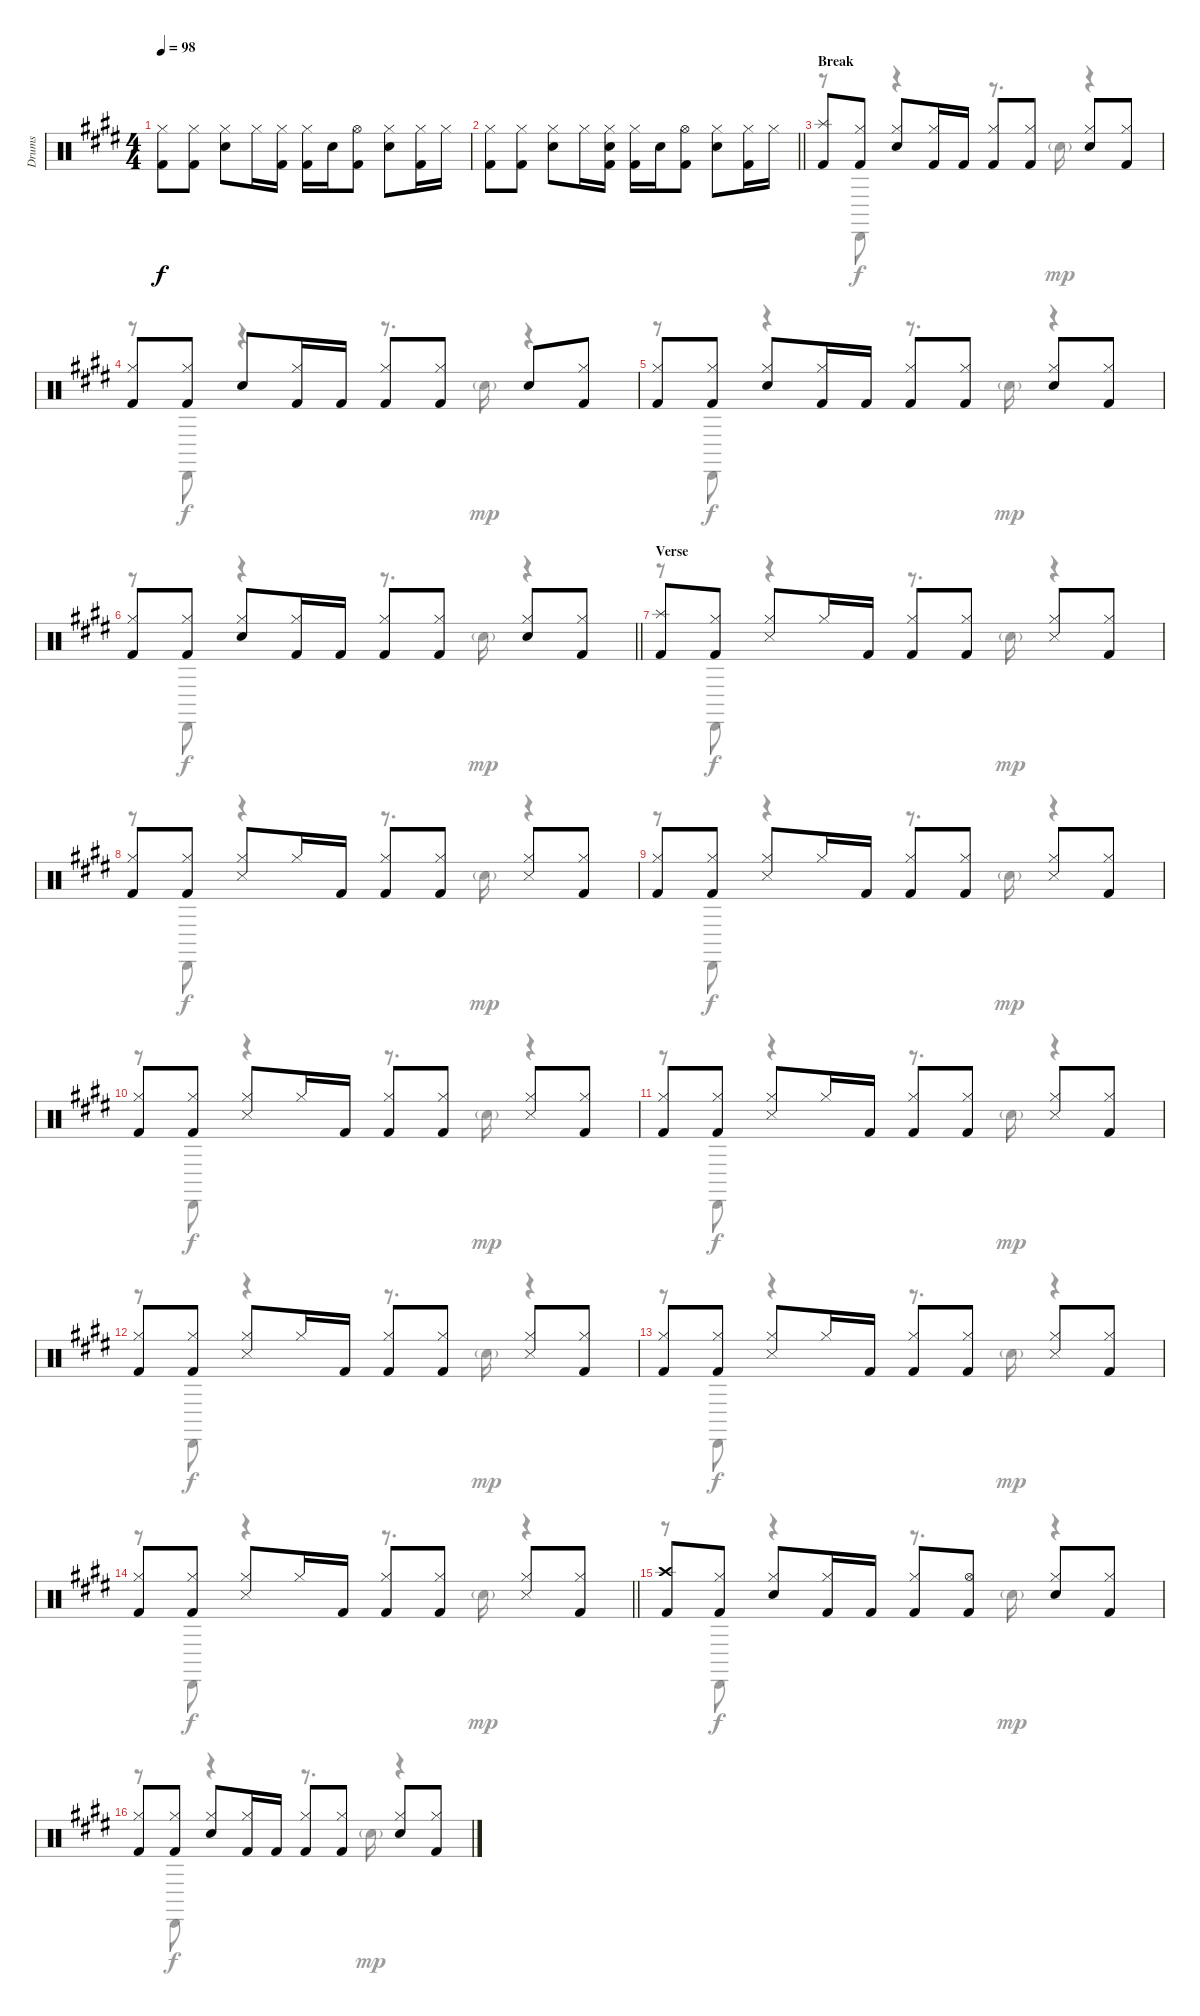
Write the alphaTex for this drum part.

\track ("Drums" "Drums") {instrument percussion}
\staff {score}
\articulation defaults
\voice
\ts (4 4)
\tempo 98
\clef neutral
\ks e
("Hi-Hat (closed)" "Kick (hit) 2").8{dy f} ("Hi-Hat (closed)" "Kick (hit) 2").8 ("Hi-Hat (closed)" "Electric Snare (hit)").8 "Hi-Hat (closed)".16 ("Hi-Hat (closed)" "Kick (hit) 2").16 ("Hi-Hat (closed)" "Kick (hit) 2").16 "Electric Snare (hit)".16 ("Hi-Hat (open)" "Kick (hit) 2").8 ("Hi-Hat (closed)" "Electric Snare (hit)").8 ("Hi-Hat (closed)" "Kick (hit) 2").16 "Hi-Hat (closed)".16 |
\barLineRight lightlight
("Hi-Hat (closed)" "Kick (hit) 2").8 ("Hi-Hat (closed)" "Kick (hit) 2").8 ("Hi-Hat (closed)" "Electric Snare (hit)").8 "Hi-Hat (closed)".16 ("Hi-Hat (closed)" "Electric Snare (hit)" "Kick (hit) 2").16 ("Hi-Hat (closed)" "Kick (hit) 2").16 "Electric Snare (hit)".16 ("Hi-Hat (open)" "Kick (hit) 2").8 ("Hi-Hat (closed)" "Electric Snare (hit)").8 ("Hi-Hat (closed)" "Kick (hit) 2").16 "Hi-Hat (closed)".16 |
\section ("" "Break")
("Splash (hit)" "Kick (hit) 2").8 ("Hi-Hat (closed)" "Kick (hit) 2").8 ("Hi-Hat (closed)" "Electric Snare (hit)").8 ("Hi-Hat (closed)" "Kick (hit) 2").16 "Kick (hit) 2".16 ("Hi-Hat (closed)" "Kick (hit) 2").8 ("Hi-Hat (closed)" "Kick (hit) 2").8 ("Hi-Hat (closed)" "Electric Snare (hit)").8 ("Hi-Hat (closed)" "Kick (hit) 2").8 |
("Hi-Hat (closed)" "Kick (hit) 2").8 ("Hi-Hat (closed)" "Kick (hit) 2").8 "Electric Snare (hit)".8 ("Hi-Hat (closed)" "Kick (hit) 2").16 "Kick (hit) 2".16 ("Hi-Hat (closed)" "Kick (hit) 2").8 ("Hi-Hat (closed)" "Kick (hit) 2").8 "Electric Snare (hit)".8 ("Hi-Hat (closed)" "Kick (hit) 2").8 |
("Hi-Hat (closed)" "Kick (hit) 2").8 ("Hi-Hat (closed)" "Kick (hit) 2").8 ("Hi-Hat (closed)" "Electric Snare (hit)").8 ("Hi-Hat (closed)" "Kick (hit) 2").16 "Kick (hit) 2".16 ("Hi-Hat (closed)" "Kick (hit) 2").8 ("Hi-Hat (closed)" "Kick (hit) 2").8 ("Hi-Hat (closed)" "Electric Snare (hit)").8 ("Hi-Hat (closed)" "Kick (hit) 2").8 |
\barLineRight lightlight
("Hi-Hat (closed)" "Kick (hit) 2").8 ("Hi-Hat (closed)" "Kick (hit) 2").8 ("Hi-Hat (closed)" "Electric Snare (hit)").8 ("Hi-Hat (closed)" "Kick (hit) 2").16 "Kick (hit) 2".16 ("Hi-Hat (closed)" "Kick (hit) 2").8 ("Hi-Hat (closed)" "Kick (hit) 2").8 ("Hi-Hat (closed)" "Electric Snare (hit)").8 ("Hi-Hat (closed)" "Kick (hit) 2").8 |
\section ("" "Verse")
("Splash (hit)" "Kick (hit) 2").8 ("Hi-Hat (closed)" "Kick (hit) 2").8 ("Hi-Hat (closed)" "Snare (side stick) 3").8 "Hi-Hat (closed)".16 "Kick (hit) 2".16 ("Hi-Hat (closed)" "Kick (hit) 2").8 ("Hi-Hat (closed)" "Kick (hit) 2").8 ("Hi-Hat (closed)" "Snare (side stick) 3").8 ("Hi-Hat (closed)" "Kick (hit) 2").8 |
("Hi-Hat (closed)" "Kick (hit) 2").8 ("Hi-Hat (closed)" "Kick (hit) 2").8 ("Hi-Hat (closed)" "Snare (side stick) 3").8 "Hi-Hat (closed)".16 "Kick (hit) 2".16 ("Hi-Hat (closed)" "Kick (hit) 2").8 ("Hi-Hat (closed)" "Kick (hit) 2").8 ("Hi-Hat (closed)" "Snare (side stick) 3").8 ("Hi-Hat (closed)" "Kick (hit) 2").8 |
("Hi-Hat (closed)" "Kick (hit) 2").8 ("Hi-Hat (closed)" "Kick (hit) 2").8 ("Hi-Hat (closed)" "Snare (side stick) 3").8 "Hi-Hat (closed)".16 "Kick (hit) 2".16 ("Hi-Hat (closed)" "Kick (hit) 2").8 ("Hi-Hat (closed)" "Kick (hit) 2").8 ("Hi-Hat (closed)" "Snare (side stick) 3").8 ("Hi-Hat (closed)" "Kick (hit) 2").8 |
("Hi-Hat (closed)" "Kick (hit) 2").8 ("Hi-Hat (closed)" "Kick (hit) 2").8 ("Hi-Hat (closed)" "Snare (side stick) 3").8 "Hi-Hat (closed)".16 "Kick (hit) 2".16 ("Hi-Hat (closed)" "Kick (hit) 2").8 ("Hi-Hat (closed)" "Kick (hit) 2").8 ("Hi-Hat (closed)" "Snare (side stick) 3").8 ("Hi-Hat (closed)" "Kick (hit) 2").8 |
("Hi-Hat (closed)" "Kick (hit) 2").8 ("Hi-Hat (closed)" "Kick (hit) 2").8 ("Hi-Hat (closed)" "Snare (side stick) 3").8 "Hi-Hat (closed)".16 "Kick (hit) 2".16 ("Hi-Hat (closed)" "Kick (hit) 2").8 ("Hi-Hat (closed)" "Kick (hit) 2").8 ("Hi-Hat (closed)" "Snare (side stick) 3").8 ("Hi-Hat (closed)" "Kick (hit) 2").8 |
("Hi-Hat (closed)" "Kick (hit) 2").8 ("Hi-Hat (closed)" "Kick (hit) 2").8 ("Hi-Hat (closed)" "Snare (side stick) 3").8 "Hi-Hat (closed)".16 "Kick (hit) 2".16 ("Hi-Hat (closed)" "Kick (hit) 2").8 ("Hi-Hat (closed)" "Kick (hit) 2").8 ("Hi-Hat (closed)" "Snare (side stick) 3").8 ("Hi-Hat (closed)" "Kick (hit) 2").8 |
("Hi-Hat (closed)" "Kick (hit) 2").8 ("Hi-Hat (closed)" "Kick (hit) 2").8 ("Hi-Hat (closed)" "Snare (side stick) 3").8 "Hi-Hat (closed)".16 "Kick (hit) 2".16 ("Hi-Hat (closed)" "Kick (hit) 2").8 ("Hi-Hat (closed)" "Kick (hit) 2").8 ("Hi-Hat (closed)" "Snare (side stick) 3").8 ("Hi-Hat (closed)" "Kick (hit) 2").8 |
\barLineRight lightlight
("Hi-Hat (closed)" "Kick (hit) 2").8 ("Hi-Hat (closed)" "Kick (hit) 2").8 ("Hi-Hat (closed)" "Snare (side stick) 3").8 "Hi-Hat (closed)".16 "Kick (hit) 2".16 ("Hi-Hat (closed)" "Kick (hit) 2").8 ("Hi-Hat (closed)" "Kick (hit) 2").8 ("Hi-Hat (closed)" "Snare (side stick) 3").8 ("Hi-Hat (closed)" "Kick (hit) 2").8 |
\section ("" "")
("Crash high (hit)" "Kick (hit) 2").8 ("Hi-Hat (closed)" "Kick (hit) 2").8 ("Hi-Hat (closed)" "Electric Snare (hit)").8 ("Hi-Hat (closed)" "Kick (hit) 2").16 "Kick (hit) 2".16 ("Hi-Hat (closed)" "Kick (hit) 2").8 ("Hi-Hat (open)" "Kick (hit) 2").8 ("Hi-Hat (closed)" "Electric Snare (hit)").8 ("Hi-Hat (closed)" "Kick (hit) 2").8 |
("Hi-Hat (closed)" "Kick (hit) 2").8 ("Hi-Hat (closed)" "Kick (hit) 2").8 ("Hi-Hat (closed)" "Electric Snare (hit)").8 ("Hi-Hat (closed)" "Kick (hit) 2").16 "Kick (hit) 2".16 ("Hi-Hat (closed)" "Kick (hit) 2").8 ("Hi-Hat (closed)" "Kick (hit) 2").8 ("Hi-Hat (closed)" "Electric Snare (hit)").8 ("Hi-Hat (closed)" "Kick (hit) 2").8
\voice
\clef neutral
\ottava regular
\simile none
\ks e
|
\barLineRight lightlight
|
r.8 "Cabasa (hit)".8{dy f} r.4 r.8{d} "Metronome (bell)"{g}.16{dy mp} r.4 |
r.8 "Cabasa (hit)".8{dy f} r.4 r.8{d} "Metronome (bell)"{g}.16{dy mp} r.4 |
r.8 "Cabasa (hit)".8{dy f} r.4 r.8{d} "Metronome (bell)"{g}.16{dy mp} r.4 |
\barLineRight lightlight
r.8 "Cabasa (hit)".8{dy f} r.4 r.8{d} "Metronome (bell)"{g}.16{dy mp} r.4 |
r.8 "Cabasa (hit)".8{dy f} r.4 r.8{d} "Metronome (bell)"{g}.16{dy mp} r.4 |
r.8 "Cabasa (hit)".8{dy f} r.4 r.8{d} "Metronome (bell)"{g}.16{dy mp} r.4 |
r.8 "Cabasa (hit)".8{dy f} r.4 r.8{d} "Metronome (bell)"{g}.16{dy mp} r.4 |
r.8 "Cabasa (hit)".8{dy f} r.4 r.8{d} "Metronome (bell)"{g}.16{dy mp} r.4 |
r.8 "Cabasa (hit)".8{dy f} r.4 r.8{d} "Metronome (bell)"{g}.16{dy mp} r.4 |
r.8 "Cabasa (hit)".8{dy f} r.4 r.8{d} "Metronome (bell)"{g}.16{dy mp} r.4 |
r.8 "Cabasa (hit)".8{dy f} r.4 r.8{d} "Metronome (bell)"{g}.16{dy mp} r.4 |
\barLineRight lightlight
r.8 "Cabasa (hit)".8{dy f} r.4 r.8{d} "Metronome (bell)"{g}.16{dy mp} r.4 |
r.8 "Cabasa (hit)".8{dy f} r.4 r.8{d} "Metronome (bell)"{g}.16{dy mp} r.4 |
r.8 "Cabasa (hit)".8{dy f} r.4 r.8{d} "Metronome (bell)"{g}.16{dy mp} r.4
